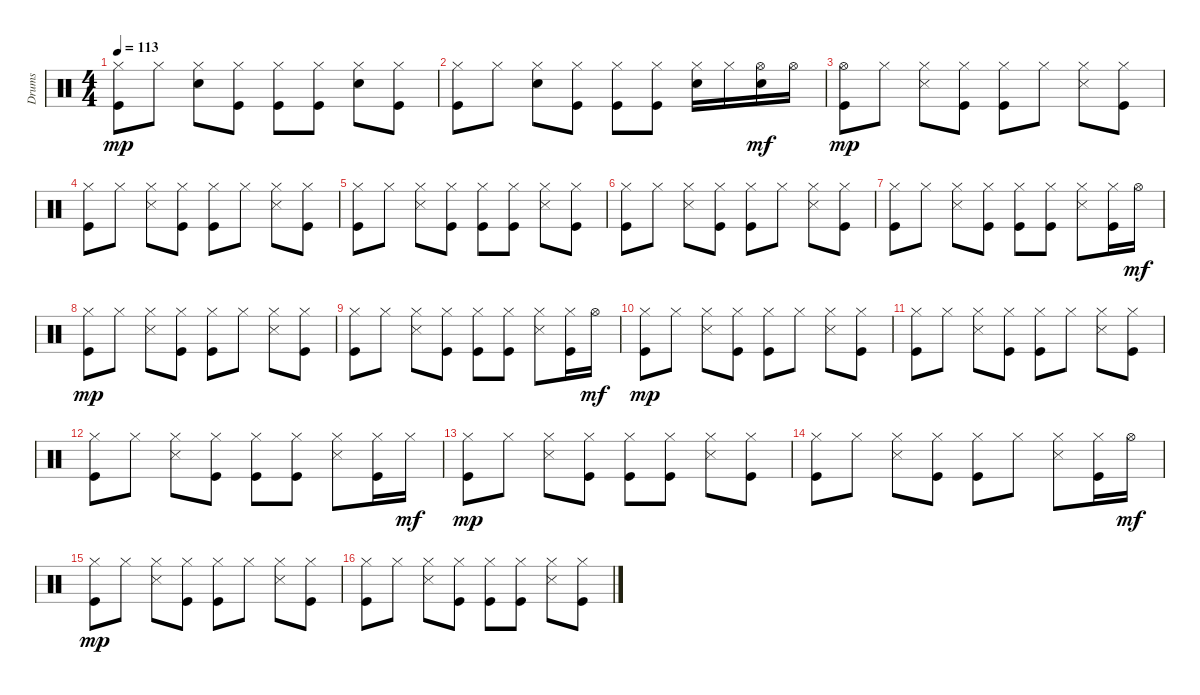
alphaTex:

\track ("Drums" "Drums") {instrument percussion}
\staff {score}
\articulation defaults
\ts (4 4)
\tempo 113
\clef neutral
\ks c
("Kick (hit)" "Hi-Hat (closed)").8{dy mp} "Hi-Hat (closed)".8 ("Snare (hit) 2" "Hi-Hat (closed)").8 ("Kick (hit)" "Hi-Hat (closed)").8 ("Kick (hit)" "Hi-Hat (closed)").8 ("Kick (hit)" "Hi-Hat (closed)").8 ("Snare (hit) 2" "Hi-Hat (closed)").8 ("Kick (hit)" "Hi-Hat (closed)").8 |
("Kick (hit)" "Hi-Hat (closed)").8 "Hi-Hat (closed)".8 ("Snare (hit) 2" "Hi-Hat (closed)").8 ("Kick (hit)" "Hi-Hat (closed)").8 ("Kick (hit)" "Hi-Hat (closed)").8 ("Kick (hit)" "Hi-Hat (closed)").8 ("Snare (hit) 2" "Hi-Hat (closed)").16 "Hi-Hat (closed)".16 ("Snare (hit) 2" "Hi-Hat (open)").16{dy mf} "Hi-Hat (open)".16 |
("Kick (hit)" "Hi-Hat (open)").8{dy mp} "Hi-Hat (closed)".8 ("Snare (side stick) 3" "Hi-Hat (closed)").8 ("Kick (hit)" "Hi-Hat (closed)").8 ("Kick (hit)" "Hi-Hat (closed)").8 "Hi-Hat (closed)".8 ("Snare (side stick) 3" "Hi-Hat (closed)").8 ("Kick (hit)" "Hi-Hat (closed)").8 |
("Kick (hit)" "Hi-Hat (closed)").8 "Hi-Hat (closed)".8 ("Snare (side stick) 3" "Hi-Hat (closed)").8 ("Kick (hit)" "Hi-Hat (closed)").8 ("Kick (hit)" "Hi-Hat (closed)").8 "Hi-Hat (closed)".8 ("Snare (side stick) 3" "Hi-Hat (closed)").8 ("Kick (hit)" "Hi-Hat (closed)").8 |
("Kick (hit)" "Hi-Hat (closed)").8 "Hi-Hat (closed)".8 ("Snare (side stick) 3" "Hi-Hat (closed)").8 ("Kick (hit)" "Hi-Hat (closed)").8 ("Kick (hit)" "Hi-Hat (closed)").8 ("Kick (hit)" "Hi-Hat (closed)").8 ("Snare (side stick) 3" "Hi-Hat (closed)").8 ("Kick (hit)" "Hi-Hat (closed)").8 |
("Kick (hit)" "Hi-Hat (closed)").8 "Hi-Hat (closed)".8 ("Snare (side stick) 3" "Hi-Hat (closed)").8 ("Kick (hit)" "Hi-Hat (closed)").8 ("Kick (hit)" "Hi-Hat (closed)").8 "Hi-Hat (closed)".8 ("Snare (side stick) 3" "Hi-Hat (closed)").8 ("Kick (hit)" "Hi-Hat (closed)").8 |
("Kick (hit)" "Hi-Hat (closed)").8 "Hi-Hat (closed)".8 ("Snare (side stick) 3" "Hi-Hat (closed)").8 ("Kick (hit)" "Hi-Hat (closed)").8 ("Kick (hit)" "Hi-Hat (closed)").8 ("Kick (hit)" "Hi-Hat (closed)").8 ("Snare (side stick) 3" "Hi-Hat (closed)").8 ("Kick (hit)" "Hi-Hat (closed)").16 "Hi-Hat (open)".16{dy mf} |
("Kick (hit)" "Hi-Hat (closed)").8{dy mp} "Hi-Hat (closed)".8 ("Snare (side stick) 3" "Hi-Hat (closed)").8 ("Kick (hit)" "Hi-Hat (closed)").8 ("Kick (hit)" "Hi-Hat (closed)").8 "Hi-Hat (closed)".8 ("Snare (side stick) 3" "Hi-Hat (closed)").8 ("Kick (hit)" "Hi-Hat (closed)").8 |
("Kick (hit)" "Hi-Hat (closed)").8 "Hi-Hat (closed)".8 ("Snare (side stick) 3" "Hi-Hat (closed)").8 ("Kick (hit)" "Hi-Hat (closed)").8 ("Kick (hit)" "Hi-Hat (closed)").8 ("Kick (hit)" "Hi-Hat (closed)").8 ("Snare (side stick) 3" "Hi-Hat (closed)").8 ("Kick (hit)" "Hi-Hat (closed)").16 "Hi-Hat (open)".16{dy mf} |
("Kick (hit)" "Hi-Hat (closed)").8{dy mp} "Hi-Hat (closed)".8 ("Snare (side stick) 3" "Hi-Hat (closed)").8 ("Kick (hit)" "Hi-Hat (closed)").8 ("Kick (hit)" "Hi-Hat (closed)").8 "Hi-Hat (closed)".8 ("Snare (side stick) 3" "Hi-Hat (closed)").8 ("Kick (hit)" "Hi-Hat (closed)").8 |
("Kick (hit)" "Hi-Hat (closed)").8 "Hi-Hat (closed)".8 ("Snare (side stick) 3" "Hi-Hat (closed)").8 ("Kick (hit)" "Hi-Hat (closed)").8 ("Kick (hit)" "Hi-Hat (closed)").8 "Hi-Hat (closed)".8 ("Snare (side stick) 3" "Hi-Hat (closed)").8 ("Kick (hit)" "Hi-Hat (closed)").8 |
("Kick (hit)" "Hi-Hat (closed)").8 "Hi-Hat (closed)".8 ("Snare (side stick) 3" "Hi-Hat (closed)").8 ("Kick (hit)" "Hi-Hat (closed)").8 ("Kick (hit)" "Hi-Hat (closed)").8 ("Kick (hit)" "Hi-Hat (closed)").8 ("Snare (side stick) 3" "Hi-Hat (closed)").8 ("Kick (hit)" "Hi-Hat (closed)").16 "Hi-Hat (closed)".16{dy mf} |
("Kick (hit)" "Hi-Hat (closed)").8{dy mp} "Hi-Hat (closed)".8 ("Snare (side stick) 3" "Hi-Hat (closed)").8 ("Kick (hit)" "Hi-Hat (closed)").8 ("Kick (hit)" "Hi-Hat (closed)").8 ("Kick (hit)" "Hi-Hat (closed)").8 ("Snare (side stick) 3" "Hi-Hat (closed)").8 ("Kick (hit)" "Hi-Hat (closed)").8 |
("Kick (hit)" "Hi-Hat (closed)").8 "Hi-Hat (closed)".8 ("Snare (side stick) 3" "Hi-Hat (closed)").8 ("Kick (hit)" "Hi-Hat (closed)").8 ("Kick (hit)" "Hi-Hat (closed)").8 "Hi-Hat (closed)".8 ("Snare (side stick) 3" "Hi-Hat (closed)").8 ("Kick (hit)" "Hi-Hat (closed)").16 "Hi-Hat (open)".16{dy mf} |
("Kick (hit)" "Hi-Hat (closed)").8{dy mp} "Hi-Hat (closed)".8 ("Snare (side stick) 3" "Hi-Hat (closed)").8 ("Kick (hit)" "Hi-Hat (closed)").8 ("Kick (hit)" "Hi-Hat (closed)").8 "Hi-Hat (closed)".8 ("Snare (side stick) 3" "Hi-Hat (closed)").8 ("Kick (hit)" "Hi-Hat (closed)").8 |
("Kick (hit)" "Hi-Hat (closed)").8 "Hi-Hat (closed)".8 ("Snare (side stick) 3" "Hi-Hat (closed)").8 ("Kick (hit)" "Hi-Hat (closed)").8 ("Kick (hit)" "Hi-Hat (closed)").8 ("Kick (hit)" "Hi-Hat (closed)").8 ("Snare (side stick) 3" "Hi-Hat (closed)").8 ("Kick (hit)" "Hi-Hat (closed)").8
